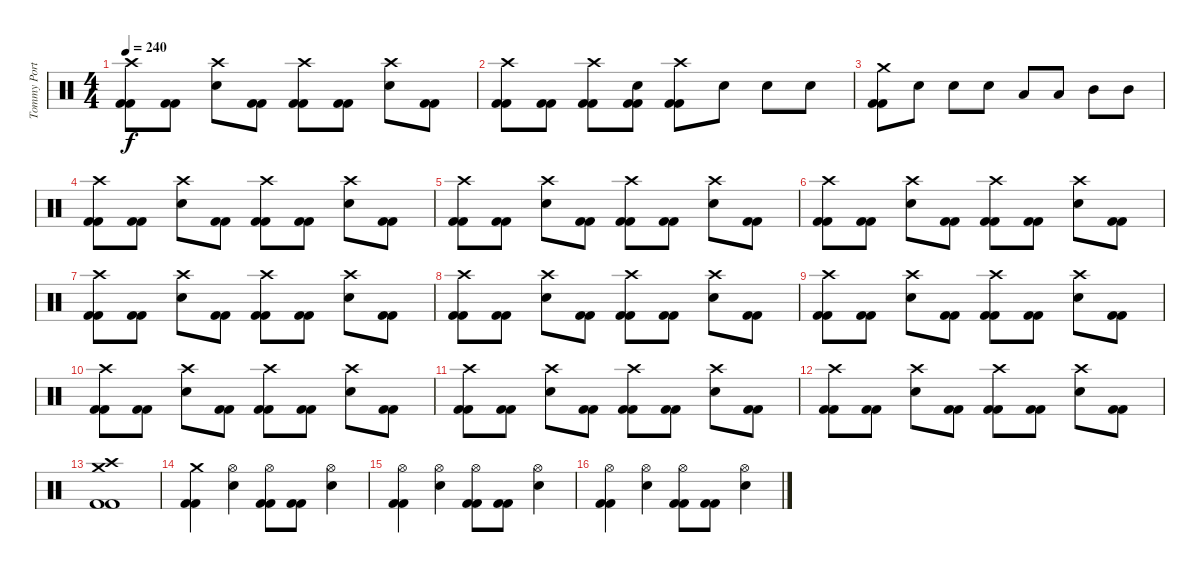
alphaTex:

\track ("Tommy Portimo " "Tommy Port") {instrument percussion}
\staff {score}
\articulation defaults
\ts (4 4)
\tempo 240
\clef neutral
\ks c
("Crash high (hit)" "Kick (hit) 2" "Kick (hit) 2").8{dy f} ("Kick (hit) 2" "Kick (hit) 2").8 ("Crash high (hit)" "Electric Snare (hit)").8 ("Kick (hit) 2" "Kick (hit) 2").8 ("Crash high (hit)" "Kick (hit) 2" "Kick (hit) 2").8 ("Kick (hit) 2" "Kick (hit) 2").8 ("Crash high (hit)" "Electric Snare (hit)").8 ("Kick (hit) 2" "Kick (hit) 2").8 |
("Crash high (hit)" "Kick (hit) 2" "Kick (hit) 2").8 ("Kick (hit) 2" "Kick (hit) 2").8 ("Crash high (hit)" "Kick (hit) 2" "Kick (hit) 2").8 ("Electric Snare (hit)" "Kick (hit) 2" "Kick (hit) 2").8 ("Crash high (hit)" "Kick (hit) 2" "Kick (hit) 2").8 "Electric Snare (hit)".8 "Electric Snare (hit)".8 "Electric Snare (hit)".8 |
("Crash medium (hit)" "Kick (hit) 2" "Kick (hit) 2").8 "Electric Snare (hit)".8 "Electric Snare (hit)".8 "Electric Snare (hit)".8 "Low Tom (hit)".8 "Low Tom (hit)".8 "Mid Tom (hit)".8 "Mid Tom (hit)".8 |
("Crash high (hit)" "Kick (hit) 2" "Kick (hit) 2").8 ("Kick (hit) 2" "Kick (hit) 2").8 ("Crash high (hit)" "Electric Snare (hit)").8 ("Kick (hit) 2" "Kick (hit) 2").8 ("Crash high (hit)" "Kick (hit) 2" "Kick (hit) 2").8 ("Kick (hit) 2" "Kick (hit) 2").8 ("Crash high (hit)" "Electric Snare (hit)").8 ("Kick (hit) 2" "Kick (hit) 2").8 |
("Crash high (hit)" "Kick (hit) 2" "Kick (hit) 2").8 ("Kick (hit) 2" "Kick (hit) 2").8 ("Crash high (hit)" "Electric Snare (hit)").8 ("Kick (hit) 2" "Kick (hit) 2").8 ("Crash high (hit)" "Kick (hit) 2" "Kick (hit) 2").8 ("Kick (hit) 2" "Kick (hit) 2").8 ("Crash high (hit)" "Electric Snare (hit)").8 ("Kick (hit) 2" "Kick (hit) 2").8 |
("Crash high (hit)" "Kick (hit) 2" "Kick (hit) 2").8 ("Kick (hit) 2" "Kick (hit) 2").8 ("Crash high (hit)" "Electric Snare (hit)").8 ("Kick (hit) 2" "Kick (hit) 2").8 ("Crash high (hit)" "Kick (hit) 2" "Kick (hit) 2").8 ("Kick (hit) 2" "Kick (hit) 2").8 ("Crash high (hit)" "Electric Snare (hit)").8 ("Kick (hit) 2" "Kick (hit) 2").8 |
("Crash high (hit)" "Kick (hit) 2" "Kick (hit) 2").8 ("Kick (hit) 2" "Kick (hit) 2").8 ("Crash high (hit)" "Electric Snare (hit)").8 ("Kick (hit) 2" "Kick (hit) 2").8 ("Crash high (hit)" "Kick (hit) 2" "Kick (hit) 2").8 ("Kick (hit) 2" "Kick (hit) 2").8 ("Crash high (hit)" "Electric Snare (hit)").8 ("Kick (hit) 2" "Kick (hit) 2").8 |
("Crash high (hit)" "Kick (hit) 2" "Kick (hit) 2").8 ("Kick (hit) 2" "Kick (hit) 2").8 ("Crash high (hit)" "Electric Snare (hit)").8 ("Kick (hit) 2" "Kick (hit) 2").8 ("Crash high (hit)" "Kick (hit) 2" "Kick (hit) 2").8 ("Kick (hit) 2" "Kick (hit) 2").8 ("Crash high (hit)" "Electric Snare (hit)").8 ("Kick (hit) 2" "Kick (hit) 2").8 |
("Crash high (hit)" "Kick (hit) 2" "Kick (hit) 2").8 ("Kick (hit) 2" "Kick (hit) 2").8 ("Crash high (hit)" "Electric Snare (hit)").8 ("Kick (hit) 2" "Kick (hit) 2").8 ("Crash high (hit)" "Kick (hit) 2" "Kick (hit) 2").8 ("Kick (hit) 2" "Kick (hit) 2").8 ("Crash high (hit)" "Electric Snare (hit)").8 ("Kick (hit) 2" "Kick (hit) 2").8 |
("Crash high (hit)" "Kick (hit) 2" "Kick (hit) 2").8 ("Kick (hit) 2" "Kick (hit) 2").8 ("Crash high (hit)" "Electric Snare (hit)").8 ("Kick (hit) 2" "Kick (hit) 2").8 ("Crash high (hit)" "Kick (hit) 2" "Kick (hit) 2").8 ("Kick (hit) 2" "Kick (hit) 2").8 ("Crash high (hit)" "Electric Snare (hit)").8 ("Kick (hit) 2" "Kick (hit) 2").8 |
("Crash high (hit)" "Kick (hit) 2" "Kick (hit) 2").8 ("Kick (hit) 2" "Kick (hit) 2").8 ("Crash high (hit)" "Electric Snare (hit)").8 ("Kick (hit) 2" "Kick (hit) 2").8 ("Crash high (hit)" "Kick (hit) 2" "Kick (hit) 2").8 ("Kick (hit) 2" "Kick (hit) 2").8 ("Crash high (hit)" "Electric Snare (hit)").8 ("Kick (hit) 2" "Kick (hit) 2").8 |
("Crash high (hit)" "Kick (hit) 2" "Kick (hit) 2").8 ("Kick (hit) 2" "Kick (hit) 2").8 ("Crash high (hit)" "Electric Snare (hit)").8 ("Kick (hit) 2" "Kick (hit) 2").8 ("Crash high (hit)" "Kick (hit) 2" "Kick (hit) 2").8 ("Kick (hit) 2" "Kick (hit) 2").8 ("Crash high (hit)" "Electric Snare (hit)").8 ("Kick (hit) 2" "Kick (hit) 2").8 |
("Crash medium (hit)" "Crash high (hit)" "Kick (hit) 2" "Kick (hit) 2").1 |
("Crash medium (hit)" "Kick (hit) 2" "Kick (hit) 2").4 ("Hi-Hat (open)" "Electric Snare (hit)").4 ("Hi-Hat (open)" "Kick (hit) 2" "Kick (hit) 2").8 ("Kick (hit) 2" "Kick (hit) 2").8 ("Hi-Hat (open)" "Electric Snare (hit)").4 |
("Hi-Hat (open)" "Kick (hit) 2" "Kick (hit) 2").4 ("Hi-Hat (open)" "Electric Snare (hit)").4 ("Hi-Hat (open)" "Kick (hit) 2" "Kick (hit) 2").8 ("Kick (hit) 2" "Kick (hit) 2").8 ("Hi-Hat (open)" "Electric Snare (hit)").4 |
("Hi-Hat (open)" "Kick (hit) 2" "Kick (hit) 2").4 ("Hi-Hat (open)" "Electric Snare (hit)").4 ("Hi-Hat (open)" "Kick (hit) 2" "Kick (hit) 2").8 ("Kick (hit) 2" "Kick (hit) 2").8 ("Hi-Hat (open)" "Electric Snare (hit)").4
